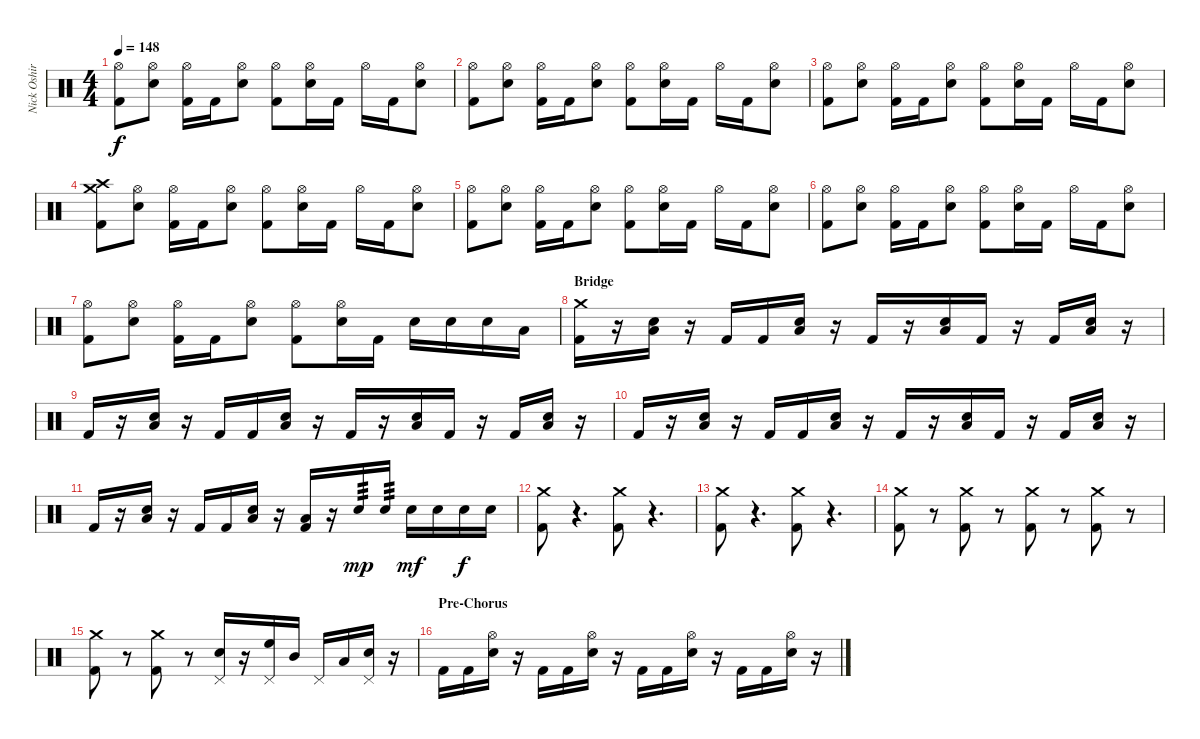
\track ("Nick Oshiro - Drums" "Nick Oshir") {instrument percussion}
\staff {score}
\articulation defaults
\ts (4 4)
\tempo 148
\clef neutral
\ks c
("Hi-Hat (open)" "Kick (hit) 2").8{dy f} ("Hi-Hat (open)" "Electric Snare (hit)").8 ("Hi-Hat (open)" "Kick (hit) 2").16 "Kick (hit) 2".16 ("Hi-Hat (open)" "Electric Snare (hit)").8 ("Hi-Hat (open)" "Kick (hit) 2").8 ("Hi-Hat (open)" "Electric Snare (hit)").16 "Kick (hit) 2".16 "Hi-Hat (open)".16 "Kick (hit) 2".16 ("Hi-Hat (open)" "Electric Snare (hit)").8 |
("Hi-Hat (open)" "Kick (hit) 2").8 ("Hi-Hat (open)" "Electric Snare (hit)").8 ("Hi-Hat (open)" "Kick (hit) 2").16 "Kick (hit) 2".16 ("Hi-Hat (open)" "Electric Snare (hit)").8 ("Hi-Hat (open)" "Kick (hit) 2").8 ("Hi-Hat (open)" "Electric Snare (hit)").16 "Kick (hit) 2".16 "Hi-Hat (open)".16 "Kick (hit) 2".16 ("Hi-Hat (open)" "Electric Snare (hit)").8 |
("Hi-Hat (open)" "Kick (hit) 2").8 ("Hi-Hat (open)" "Electric Snare (hit)").8 ("Hi-Hat (open)" "Kick (hit) 2").16 "Kick (hit) 2".16 ("Hi-Hat (open)" "Electric Snare (hit)").8 ("Hi-Hat (open)" "Kick (hit) 2").8 ("Hi-Hat (open)" "Electric Snare (hit)").16 "Kick (hit) 2".16 "Hi-Hat (open)".16 "Kick (hit) 2".16 ("Hi-Hat (open)" "Electric Snare (hit)").8 |
("Crash high (hit)" "Crash medium (hit)" "Kick (hit) 2").8 ("Hi-Hat (open)" "Electric Snare (hit)").8 ("Hi-Hat (open)" "Kick (hit) 2").16 "Kick (hit) 2".16 ("Hi-Hat (open)" "Electric Snare (hit)").8 ("Hi-Hat (open)" "Kick (hit) 2").8 ("Hi-Hat (open)" "Electric Snare (hit)").16 "Kick (hit) 2".16 "Hi-Hat (open)".16 "Kick (hit) 2".16 ("Hi-Hat (open)" "Electric Snare (hit)").8 |
("Hi-Hat (open)" "Kick (hit) 2").8 ("Hi-Hat (open)" "Electric Snare (hit)").8 ("Hi-Hat (open)" "Kick (hit) 2").16 "Kick (hit) 2".16 ("Hi-Hat (open)" "Electric Snare (hit)").8 ("Hi-Hat (open)" "Kick (hit) 2").8 ("Hi-Hat (open)" "Electric Snare (hit)").16 "Kick (hit) 2".16 "Hi-Hat (open)".16 "Kick (hit) 2".16 ("Hi-Hat (open)" "Electric Snare (hit)").8 |
("Hi-Hat (open)" "Kick (hit) 2").8 ("Hi-Hat (open)" "Electric Snare (hit)").8 ("Hi-Hat (open)" "Kick (hit) 2").16 "Kick (hit) 2".16 ("Hi-Hat (open)" "Electric Snare (hit)").8 ("Hi-Hat (open)" "Kick (hit) 2").8 ("Hi-Hat (open)" "Electric Snare (hit)").16 "Kick (hit) 2".16 "Hi-Hat (open)".16 "Kick (hit) 2".16 ("Hi-Hat (open)" "Electric Snare (hit)").8 |
("Hi-Hat (open)" "Kick (hit) 2").8 ("Hi-Hat (open)" "Electric Snare (hit)").8 ("Hi-Hat (open)" "Kick (hit) 2").16 "Kick (hit) 2".16 ("Hi-Hat (open)" "Electric Snare (hit)").8 ("Hi-Hat (open)" "Kick (hit) 2").8 ("Hi-Hat (open)" "Electric Snare (hit)").16 "Kick (hit) 2".16 "Electric Snare (hit)".16 "Electric Snare (hit)".16 "Electric Snare (hit)".16 "Low Tom (hit)".16 |
\section ("" "Bridge")
("Crash medium (hit)" "Kick (hit) 2").16 r.16 ("Electric Snare (hit)" "Low Tom (hit)").16 r.16 "Kick (hit) 2".16 "Kick (hit) 2".16 ("Electric Snare (hit)" "Low Tom (hit)").16 r.16 "Kick (hit) 2".16 r.16 ("Electric Snare (hit)" "Low Tom (hit)").16 "Kick (hit) 2".16 r.16 "Kick (hit) 2".16 ("Electric Snare (hit)" "Low Tom (hit)").16 r.16 |
"Kick (hit) 2".16 r.16 ("Electric Snare (hit)" "Low Tom (hit)").16 r.16 "Kick (hit) 2".16 "Kick (hit) 2".16 ("Electric Snare (hit)" "Low Tom (hit)").16 r.16 "Kick (hit) 2".16 r.16 ("Electric Snare (hit)" "Low Tom (hit)").16 "Kick (hit) 2".16 r.16 "Kick (hit) 2".16 ("Electric Snare (hit)" "Low Tom (hit)").16 r.16 |
"Kick (hit) 2".16 r.16 ("Electric Snare (hit)" "Low Tom (hit)").16 r.16 "Kick (hit) 2".16 "Kick (hit) 2".16 ("Electric Snare (hit)" "Low Tom (hit)").16 r.16 "Kick (hit) 2".16 r.16 ("Electric Snare (hit)" "Low Tom (hit)").16 "Kick (hit) 2".16 r.16 "Kick (hit) 2".16 ("Electric Snare (hit)" "Low Tom (hit)").16 r.16 |
"Kick (hit) 2".16 r.16 ("Electric Snare (hit)" "Low Tom (hit)").16 r.16 "Kick (hit) 2".16 "Kick (hit) 2".16 ("Electric Snare (hit)" "Low Tom (hit)").16 r.16 ("Low Tom (hit)" "Kick (hit) 2").16 r.16 "Electric Snare (hit)".16{tp 3 dy mp} "Electric Snare (hit)".16{tp 3} "Electric Snare (hit)".16{dy mf} "Electric Snare (hit)".16 "Electric Snare (hit)".16{dy f} "Electric Snare (hit)".16 |
("Crash medium (hit)" "Kick (hit) 2").8 r.4{d volume 0} ("Crash medium (hit)" "Kick (hit) 2").8{volume 13} r.4{d volume 0} |
("Crash medium (hit)" "Kick (hit) 2").8{volume 13} r.4{d volume 0} ("Crash medium (hit)" "Kick (hit) 2").8{volume 13} r.4{d volume 0} |
("Crash medium (hit)" "Kick (hit) 2").8{volume 13} r.8{volume 0} ("Crash medium (hit)" "Kick (hit) 2").8{volume 13} r.8{volume 0} ("Crash medium (hit)" "Kick (hit) 2").8{volume 13} r.8{volume 0} ("Crash medium (hit)" "Kick (hit) 2").8{volume 13} r.8{volume 0} |
("Crash medium (hit)" "Kick (hit) 2").8{volume 13} r.8{volume 0} ("Crash medium (hit)" "Kick (hit) 2").8{volume 13} r.8 ("Pedal Hi-Hat (hit)" "Electric Snare (hit)").16 r.16 ("Pedal Hi-Hat (hit)" "High Floor Tom (hit)").16 "Mid Tom (hit)".16 "Pedal Hi-Hat (hit)".16 "Low Tom (hit)".16 ("Pedal Hi-Hat (hit)" "Electric Snare (hit)").16 r.16 |
\section ("" "Pre-Chorus")
"Kick (hit) 2".16 "Kick (hit) 2".16 ("Hi-Hat (open)" "Electric Snare (hit)").16 r.16 "Kick (hit) 2".16 "Kick (hit) 2".16 ("Hi-Hat (open)" "Electric Snare (hit)").16 r.16 "Kick (hit) 2".16 "Kick (hit) 2".16 ("Hi-Hat (open)" "Electric Snare (hit)").16 r.16 "Kick (hit) 2".16 "Kick (hit) 2".16 ("Hi-Hat (open)" "Electric Snare (hit)").16 r.16
